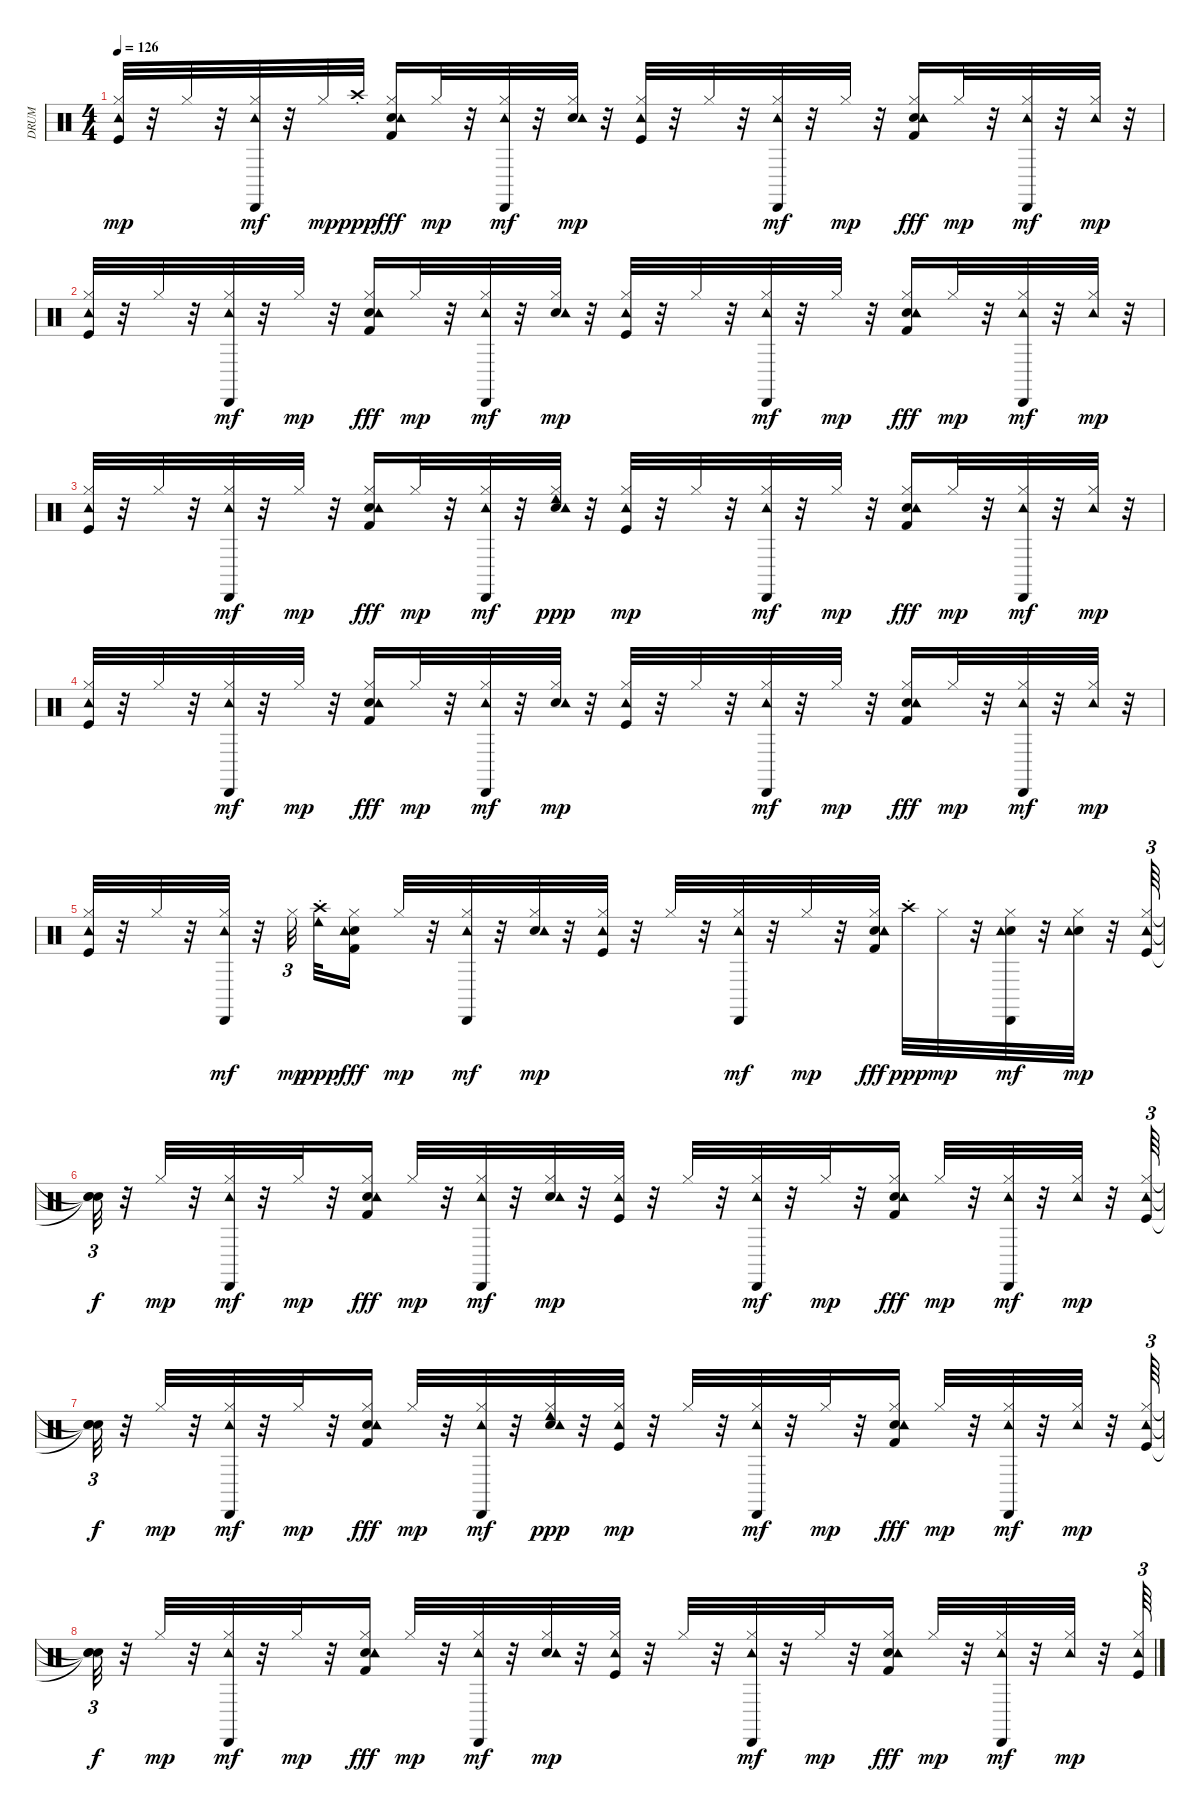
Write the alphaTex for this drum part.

\track ("DRUM" "DRUM") {instrument percussion}
\staff {score}
\articulation defaults
\ts (4 4)
\tempo 126
\clef neutral
\ks c
("Kick (hit)" "Hi-Hat (closed)" "Tambourine (hit)").32{dy mp} r.32 "Hi-Hat (closed)".32 r.32 ("Hi-Hat (closed)" "Tambourine (hit)" "Cabasa (hit)").32{dy mf} r.32 "Hi-Hat (closed)".32{dy mp} "Crash high (choke)".32{dy ppp} ("Snare (hit) 2" "Hi-Hat (closed)" "Tambourine (hit)" "Kick (hit) 2").16{dy fff} "Hi-Hat (closed)".32{dy mp} r.32 ("Hi-Hat (closed)" "Tambourine (hit)" "Cabasa (hit)").32{dy mf} r.32 ("Snare (hit) 2" "Hi-Hat (closed)" "Tambourine (hit)").32{dy mp} r.32 ("Kick (hit)" "Hi-Hat (closed)" "Tambourine (hit)").32 r.32 "Hi-Hat (closed)".32 r.32 ("Hi-Hat (closed)" "Tambourine (hit)" "Cabasa (hit)").32{dy mf} r.32 "Hi-Hat (closed)".32{dy mp} r.32 ("Snare (hit) 2" "Hi-Hat (closed)" "Tambourine (hit)" "Kick (hit) 2").16{dy fff} "Hi-Hat (closed)".32{dy mp} r.32 ("Hi-Hat (closed)" "Tambourine (hit)" "Cabasa (hit)").32{dy mf} r.32 ("Hi-Hat (closed)" "Tambourine (hit)").32{dy mp} r.32 |
("Kick (hit)" "Hi-Hat (closed)" "Tambourine (hit)").32 r.32 "Hi-Hat (closed)".32 r.32 ("Hi-Hat (closed)" "Tambourine (hit)" "Cabasa (hit)").32{dy mf} r.32 "Hi-Hat (closed)".32{dy mp} r.32 ("Snare (hit) 2" "Hi-Hat (closed)" "Tambourine (hit)" "Kick (hit) 2").16{dy fff} "Hi-Hat (closed)".32{dy mp} r.32 ("Hi-Hat (closed)" "Tambourine (hit)" "Cabasa (hit)").32{dy mf} r.32 ("Snare (hit) 2" "Hi-Hat (closed)" "Tambourine (hit)").32{dy mp} r.32 ("Kick (hit)" "Hi-Hat (closed)" "Tambourine (hit)").32 r.32 "Hi-Hat (closed)".32 r.32 ("Hi-Hat (closed)" "Tambourine (hit)" "Cabasa (hit)").32{dy mf} r.32 "Hi-Hat (closed)".32{dy mp} r.32 ("Snare (hit) 2" "Hi-Hat (closed)" "Tambourine (hit)" "Kick (hit) 2").16{dy fff} "Hi-Hat (closed)".32{dy mp} r.32 ("Hi-Hat (closed)" "Tambourine (hit)" "Cabasa (hit)").32{dy mf} r.32 ("Hi-Hat (closed)" "Tambourine (hit)").32{dy mp} r.32 |
("Kick (hit)" "Hi-Hat (closed)" "Tambourine (hit)").32 r.32 "Hi-Hat (closed)".32 r.32 ("Hi-Hat (closed)" "Tambourine (hit)" "Cabasa (hit)").32{dy mf} r.32 "Hi-Hat (closed)".32{dy mp} r.32 ("Snare (hit) 2" "Hi-Hat (closed)" "Tambourine (hit)" "Kick (hit) 2").16{dy fff} "Hi-Hat (closed)".32{dy mp} r.32 ("Hi-Hat (closed)" "Tambourine (hit)" "Cabasa (hit)").32{dy mf} r.32 ("Snare (hit) 2" "Hi-Hat (closed)" "Tambourine (hit)" "Cowbell low (hit)").32{dy ppp} r.32 ("Kick (hit)" "Hi-Hat (closed)" "Tambourine (hit)").32{dy mp} r.32 "Hi-Hat (closed)".32 r.32 ("Hi-Hat (closed)" "Tambourine (hit)" "Cabasa (hit)").32{dy mf} r.32 "Hi-Hat (closed)".32{dy mp} r.32 ("Snare (hit) 2" "Hi-Hat (closed)" "Tambourine (hit)" "Kick (hit) 2").16{dy fff} "Hi-Hat (closed)".32{dy mp} r.32 ("Hi-Hat (closed)" "Tambourine (hit)" "Cabasa (hit)").32{dy mf} r.32 ("Hi-Hat (closed)" "Tambourine (hit)").32{dy mp} r.32 |
("Kick (hit)" "Hi-Hat (closed)" "Tambourine (hit)").32 r.32 "Hi-Hat (closed)".32 r.32 ("Hi-Hat (closed)" "Tambourine (hit)" "Cabasa (hit)").32{dy mf} r.32 "Hi-Hat (closed)".32{dy mp} r.32 ("Snare (hit) 2" "Hi-Hat (closed)" "Tambourine (hit)" "Kick (hit) 2").16{dy fff} "Hi-Hat (closed)".32{dy mp} r.32 ("Hi-Hat (closed)" "Tambourine (hit)" "Cabasa (hit)").32{dy mf} r.32 ("Snare (hit) 2" "Hi-Hat (closed)" "Tambourine (hit)").32{dy mp} r.32 ("Kick (hit)" "Hi-Hat (closed)" "Tambourine (hit)").32 r.32 "Hi-Hat (closed)".32 r.32 ("Hi-Hat (closed)" "Tambourine (hit)" "Cabasa (hit)").32{dy mf} r.32 "Hi-Hat (closed)".32{dy mp} r.32 ("Snare (hit) 2" "Hi-Hat (closed)" "Tambourine (hit)" "Kick (hit) 2").16{dy fff} "Hi-Hat (closed)".32{dy mp} r.32 ("Hi-Hat (closed)" "Tambourine (hit)" "Cabasa (hit)").32{dy mf} r.32 ("Hi-Hat (closed)" "Tambourine (hit)").32{dy mp} r.32 |
("Kick (hit)" "Hi-Hat (closed)" "Tambourine (hit)").32 r.32 "Hi-Hat (closed)".32 r.32 ("Hi-Hat (closed)" "Tambourine (hit)" "Cabasa (hit)").32{dy mf} r.32 "Hi-Hat (closed)".32{tu (3 2) dy mp} ("Cowbell low (hit)" "Crash high (choke)").32{dy ppp} ("Snare (hit) 2" "Hi-Hat (closed)" "Tambourine (hit)" "Kick (hit) 2").16{dy fff} "Hi-Hat (closed)".32{dy mp} r.32 ("Hi-Hat (closed)" "Tambourine (hit)" "Cabasa (hit)").32{dy mf} r.32 ("Snare (hit) 2" "Hi-Hat (closed)" "Tambourine (hit)").32{dy mp} r.32 ("Kick (hit)" "Hi-Hat (closed)" "Tambourine (hit)").32 r.32 "Hi-Hat (closed)".32 r.32 ("Hi-Hat (closed)" "Tambourine (hit)" "Cabasa (hit)").32{dy mf} r.32 "Hi-Hat (closed)".32{dy mp} r.32 ("Snare (hit) 2" "Hi-Hat (closed)" "Tambourine (hit)" "Kick (hit) 2").32{dy fff} "Crash high (choke)".32{dy ppp} "Hi-Hat (closed)".32{dy mp} r.32 ("Snare (hit) 2" "Hi-Hat (closed)" "Tambourine (hit)" "Cabasa (hit)").32{dy mf} r.32 ("Snare (hit) 2" "Hi-Hat (closed)" "Tambourine (hit)").32{dy mp} r.32 ("Kick (hit)" "Hi-Hat (closed)" "Tambourine (hit)").64{tu (3 2)} |
("Snare (hit)"{t} "Snare (hit)"{t} "Snare (hit)"{t}).32{tu (3 2) dy f} r.32 "Hi-Hat (closed)".32{dy mp} r.32 ("Hi-Hat (closed)" "Tambourine (hit)" "Cabasa (hit)").32{dy mf} r.32 "Hi-Hat (closed)".32{dy mp} r.32 ("Snare (hit) 2" "Hi-Hat (closed)" "Tambourine (hit)" "Kick (hit) 2").16{dy fff} "Hi-Hat (closed)".32{dy mp} r.32 ("Hi-Hat (closed)" "Tambourine (hit)" "Cabasa (hit)").32{dy mf} r.32 ("Snare (hit) 2" "Hi-Hat (closed)" "Tambourine (hit)").32{dy mp} r.32 ("Kick (hit)" "Hi-Hat (closed)" "Tambourine (hit)").32 r.32 "Hi-Hat (closed)".32 r.32 ("Hi-Hat (closed)" "Tambourine (hit)" "Cabasa (hit)").32{dy mf} r.32 "Hi-Hat (closed)".32{dy mp} r.32 ("Snare (hit) 2" "Hi-Hat (closed)" "Tambourine (hit)" "Kick (hit) 2").16{dy fff} "Hi-Hat (closed)".32{dy mp} r.32 ("Hi-Hat (closed)" "Tambourine (hit)" "Cabasa (hit)").32{dy mf} r.32 ("Hi-Hat (closed)" "Tambourine (hit)").32{dy mp} r.32 ("Kick (hit)" "Hi-Hat (closed)" "Tambourine (hit)").64{tu (3 2)} |
("Snare (hit)"{t} "Snare (hit)"{t} "Snare (hit)"{t}).32{tu (3 2) dy f} r.32 "Hi-Hat (closed)".32{dy mp} r.32 ("Hi-Hat (closed)" "Tambourine (hit)" "Cabasa (hit)").32{dy mf} r.32 "Hi-Hat (closed)".32{dy mp} r.32 ("Snare (hit) 2" "Hi-Hat (closed)" "Tambourine (hit)" "Kick (hit) 2").16{dy fff} "Hi-Hat (closed)".32{dy mp} r.32 ("Hi-Hat (closed)" "Tambourine (hit)" "Cabasa (hit)").32{dy mf} r.32 ("Snare (hit) 2" "Hi-Hat (closed)" "Tambourine (hit)" "Cowbell low (hit)").32{dy ppp} r.32 ("Kick (hit)" "Hi-Hat (closed)" "Tambourine (hit)").32{dy mp} r.32 "Hi-Hat (closed)".32 r.32 ("Hi-Hat (closed)" "Tambourine (hit)" "Cabasa (hit)").32{dy mf} r.32 "Hi-Hat (closed)".32{dy mp} r.32 ("Snare (hit) 2" "Hi-Hat (closed)" "Tambourine (hit)" "Kick (hit) 2").16{dy fff} "Hi-Hat (closed)".32{dy mp} r.32 ("Hi-Hat (closed)" "Tambourine (hit)" "Cabasa (hit)").32{dy mf} r.32 ("Hi-Hat (closed)" "Tambourine (hit)").32{dy mp} r.32 ("Kick (hit)" "Hi-Hat (closed)" "Tambourine (hit)").64{tu (3 2)} |
("Snare (hit)"{t} "Snare (hit)"{t} "Snare (hit)"{t}).32{tu (3 2) dy f} r.32 "Hi-Hat (closed)".32{dy mp} r.32 ("Hi-Hat (closed)" "Tambourine (hit)" "Cabasa (hit)").32{dy mf} r.32 "Hi-Hat (closed)".32{dy mp} r.32 ("Snare (hit) 2" "Hi-Hat (closed)" "Tambourine (hit)" "Kick (hit) 2").16{dy fff} "Hi-Hat (closed)".32{dy mp} r.32 ("Hi-Hat (closed)" "Tambourine (hit)" "Cabasa (hit)").32{dy mf} r.32 ("Snare (hit) 2" "Hi-Hat (closed)" "Tambourine (hit)").32{dy mp} r.32 ("Kick (hit)" "Hi-Hat (closed)" "Tambourine (hit)").32 r.32 "Hi-Hat (closed)".32 r.32 ("Hi-Hat (closed)" "Tambourine (hit)" "Cabasa (hit)").32{dy mf} r.32 "Hi-Hat (closed)".32{dy mp} r.32 ("Snare (hit) 2" "Hi-Hat (closed)" "Tambourine (hit)" "Kick (hit) 2").16{dy fff} "Hi-Hat (closed)".32{dy mp} r.32 ("Hi-Hat (closed)" "Tambourine (hit)" "Cabasa (hit)").32{dy mf} r.32 ("Hi-Hat (closed)" "Tambourine (hit)").32{dy mp} r.32 ("Kick (hit)" "Hi-Hat (closed)" "Tambourine (hit)").64{tu (3 2)}
